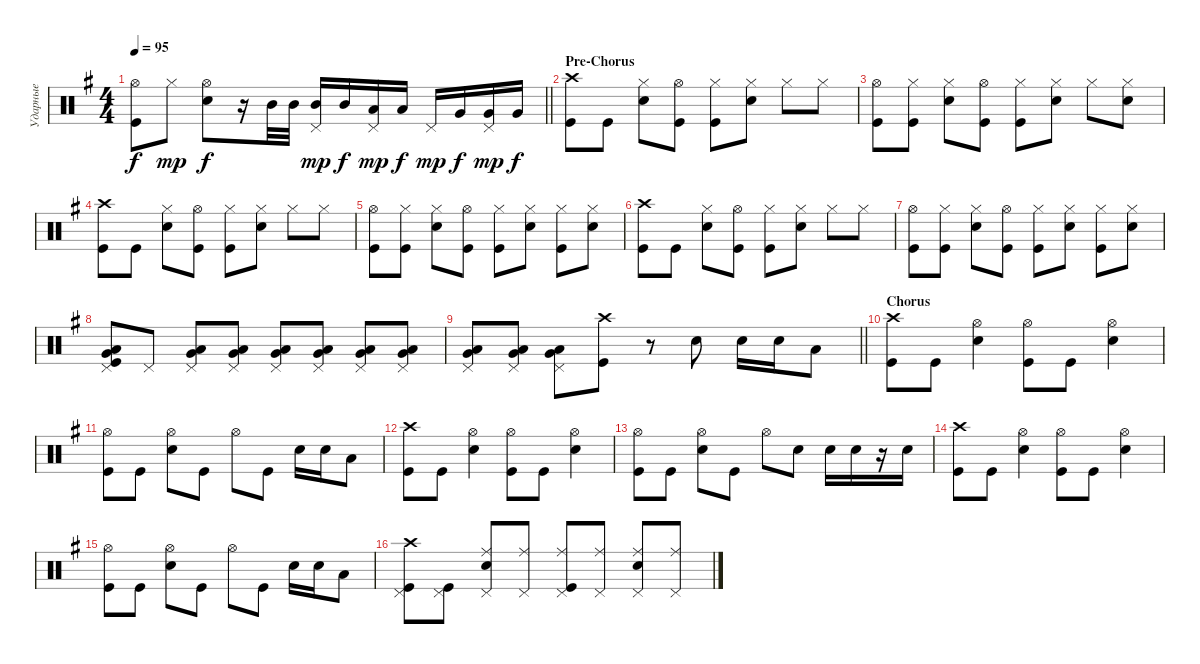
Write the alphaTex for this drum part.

\track ("Ударные" "Ударные") {instrument percussion}
\staff {score}
\articulation defaults
\ts (4 4)
\tempo 95
\clef neutral
\barLineRight lightlight
\ks eminor
("Kick (hit)" "Hi-Hat (open)").8{dy f} "Hi-Hat (closed)".8{dy mp} ("Snare (hit) 2" "Hi-Hat (open)").8{dy f} r.16 "Mid Tom (hit)".32 "Mid Tom (hit)".32 ("Mid Tom (hit)" "Pedal Hi-Hat (hit)").16{dy mp} "Mid Tom (hit)".16{dy f} ("Low Tom (hit)" "Pedal Hi-Hat (hit)").16{dy mp} "Low Tom (hit)".16{dy f} "Pedal Hi-Hat (hit)".16{dy mp} "Very Low Tom (hit)".16{dy f} ("Very Low Tom (hit)" "Pedal Hi-Hat (hit)").16{dy mp} "Very Low Tom (hit)".16{dy f} |
\section ("" "Pre-Chorus")
("Kick (hit)" "Crash high (hit)").8 "Kick (hit)".8 ("Snare (hit) 2" "Hi-Hat (closed)").8 ("Kick (hit)" "Hi-Hat (open)").8 ("Kick (hit)" "Hi-Hat (closed)").8 ("Snare (hit) 2" "Hi-Hat (closed)").8 "Hi-Hat (closed)".8 "Hi-Hat (closed)".8 |
("Kick (hit)" "Hi-Hat (open)").8 ("Kick (hit)" "Hi-Hat (closed)").8 ("Snare (hit) 2" "Hi-Hat (closed)").8 ("Kick (hit)" "Hi-Hat (open)").8 ("Kick (hit)" "Hi-Hat (closed)").8 ("Snare (hit) 2" "Hi-Hat (closed)").8 "Hi-Hat (closed)".8 ("Hi-Hat (closed)" "Snare (hit) 2").8 |
("Kick (hit)" "Crash high (hit)").8 "Kick (hit)".8 ("Snare (hit) 2" "Hi-Hat (closed)").8 ("Kick (hit)" "Hi-Hat (open)").8 ("Kick (hit)" "Hi-Hat (closed)").8 ("Snare (hit) 2" "Hi-Hat (closed)").8 "Hi-Hat (closed)".8 "Hi-Hat (closed)".8 |
("Kick (hit)" "Hi-Hat (open)").8 ("Kick (hit)" "Hi-Hat (closed)").8 ("Snare (hit) 2" "Hi-Hat (closed)").8 ("Kick (hit)" "Hi-Hat (open)").8 ("Kick (hit)" "Hi-Hat (closed)").8 ("Snare (hit) 2" "Hi-Hat (closed)").8 ("Hi-Hat (closed)" "Kick (hit)").8 ("Hi-Hat (closed)" "Snare (hit) 2").8 |
("Kick (hit)" "Crash high (hit)").8 "Kick (hit)".8 ("Snare (hit) 2" "Hi-Hat (closed)").8 ("Kick (hit)" "Hi-Hat (open)").8 ("Kick (hit)" "Hi-Hat (closed)").8 ("Snare (hit) 2" "Hi-Hat (closed)").8 "Hi-Hat (closed)".8 "Hi-Hat (closed)".8 |
("Kick (hit)" "Hi-Hat (open)").8 ("Kick (hit)" "Hi-Hat (closed)").8 ("Snare (hit) 2" "Hi-Hat (closed)").8 ("Kick (hit)" "Hi-Hat (open)").8 ("Kick (hit)" "Hi-Hat (closed)").8 ("Snare (hit) 2" "Hi-Hat (closed)").8 ("Hi-Hat (closed)" "Kick (hit)").8 ("Hi-Hat (closed)" "Snare (hit) 2").8 |
("Kick (hit)" "Very Low Tom (hit)" "Low Tom (hit)" "Pedal Hi-Hat (hit)").8{bd 120} "Pedal Hi-Hat (hit)".8 ("Low Tom (hit)" "Very Low Tom (hit)" "Pedal Hi-Hat (hit)").8{bd 120} ("Low Tom (hit)" "Very Low Tom (hit)" "Pedal Hi-Hat (hit)").8{bd 120} ("Low Tom (hit)" "Very Low Tom (hit)" "Pedal Hi-Hat (hit)").8{bd 120} ("Low Tom (hit)" "Very Low Tom (hit)" "Pedal Hi-Hat (hit)").8{bd 120} ("Low Tom (hit)" "Very Low Tom (hit)" "Pedal Hi-Hat (hit)").8{bd 120} ("Low Tom (hit)" "Very Low Tom (hit)" "Pedal Hi-Hat (hit)").8{bd 120} |
\barLineRight lightlight
("Low Tom (hit)" "Very Low Tom (hit)" "Pedal Hi-Hat (hit)").8{bd 120} ("Low Tom (hit)" "Very Low Tom (hit)" "Pedal Hi-Hat (hit)").8{bd 120} ("Low Tom (hit)" "Very Low Tom (hit)" "Pedal Hi-Hat (hit)").8{bd 120} ("Kick (hit)" "Crash high (hit)").8 r.8 "Snare (hit) 2".8 "Snare (hit) 2".16 "Snare (hit) 2".16 "Low Tom (hit)".8 |
\section ("" "Chorus")
("Kick (hit)" "Crash high (hit)").8 "Kick (hit)".8 ("Snare (hit) 2" "Hi-Hat (open)").4 ("Kick (hit)" "Hi-Hat (open)").8 "Kick (hit)".8 ("Snare (hit) 2" "Hi-Hat (open)").4 |
("Kick (hit)" "Hi-Hat (open)").8 "Kick (hit)".8 ("Snare (hit) 2" "Hi-Hat (open)").8 "Kick (hit)".8 "Hi-Hat (open)".8 "Kick (hit)".8 "Snare (hit) 2".16 "Snare (hit) 2".16 "Low Tom (hit)".8 |
("Kick (hit)" "Crash high (hit)").8 "Kick (hit)".8 ("Snare (hit) 2" "Hi-Hat (open)").4 ("Kick (hit)" "Hi-Hat (open)").8 "Kick (hit)".8 ("Snare (hit) 2" "Hi-Hat (open)").4 |
("Kick (hit)" "Hi-Hat (open)").8 "Kick (hit)".8 ("Snare (hit) 2" "Hi-Hat (open)").8 "Kick (hit)".8 "Hi-Hat (open)".8 "Snare (hit) 2".8 "Snare (hit) 2".16 "Snare (hit) 2".16 r.16 "Snare (hit) 2".16 |
("Kick (hit)" "Crash high (hit)").8 "Kick (hit)".8 ("Snare (hit) 2" "Hi-Hat (open)").4 ("Kick (hit)" "Hi-Hat (open)").8 "Kick (hit)".8 ("Snare (hit) 2" "Hi-Hat (open)").4 |
("Kick (hit)" "Hi-Hat (open)").8 "Kick (hit)".8 ("Snare (hit) 2" "Hi-Hat (open)").8 "Kick (hit)".8 "Hi-Hat (open)".8 "Kick (hit)".8 "Snare (hit) 2".16 "Snare (hit) 2".16 "Low Tom (hit)".8 |
("Pedal Hi-Hat (hit)" "Crash high (hit)" "Kick (hit)").8 ("Pedal Hi-Hat (hit)" "Kick (hit)").8 ("Pedal Hi-Hat (hit)" "Snare (hit) 2" "Ride (middle)").8 ("Pedal Hi-Hat (hit)" "Ride (middle)").8 ("Pedal Hi-Hat (hit)" "Kick (hit)" "Ride (middle)").8 ("Pedal Hi-Hat (hit)" "Ride (middle)").8 ("Pedal Hi-Hat (hit)" "Snare (hit) 2" "Ride (middle)").8 ("Pedal Hi-Hat (hit)" "Ride (middle)").8
